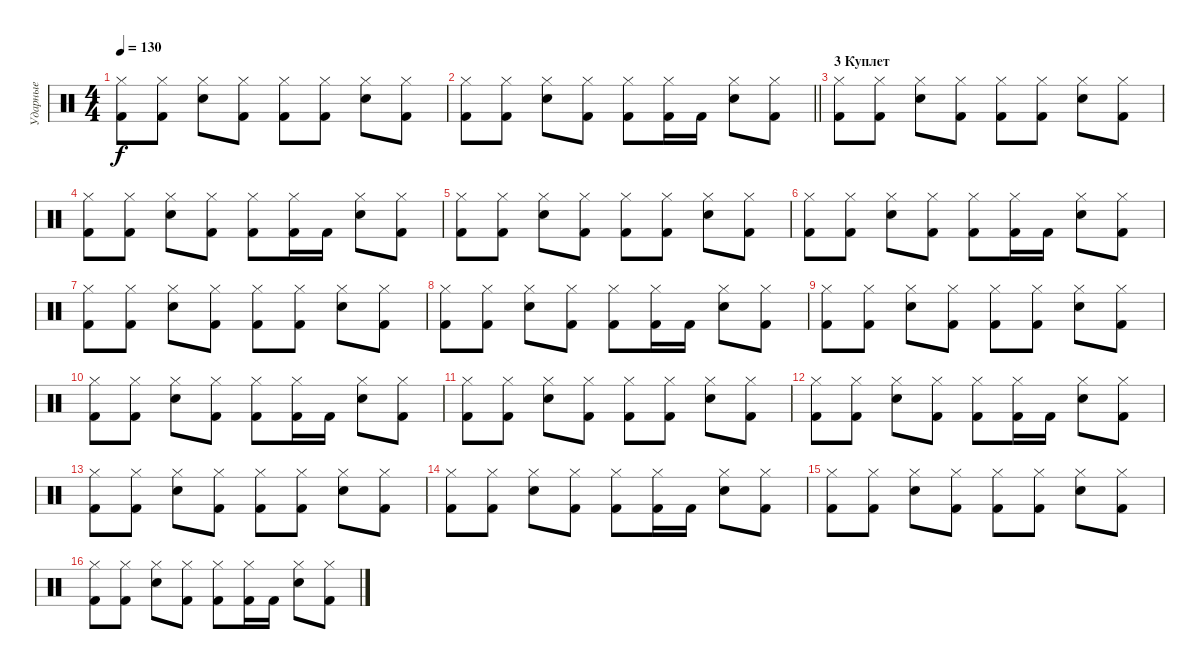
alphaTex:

\track ("Ударные" "Ударные") {instrument percussion}
\staff {score}
\articulation defaults
\ts (4 4)
\tempo 130
\clef neutral
\ks c
("Hi-Hat (closed)" "Kick (hit) 2").8{dy f} ("Hi-Hat (closed)" "Kick (hit) 2").8 ("Hi-Hat (closed)" "Snare (hit) 2").8 ("Hi-Hat (closed)" "Kick (hit) 2").8 ("Hi-Hat (closed)" "Kick (hit) 2").8 ("Hi-Hat (closed)" "Kick (hit) 2").8 ("Hi-Hat (closed)" "Snare (hit) 2").8 ("Hi-Hat (closed)" "Kick (hit) 2").8 |
\barLineRight lightlight
("Hi-Hat (closed)" "Kick (hit) 2").8 ("Hi-Hat (closed)" "Kick (hit) 2").8 ("Hi-Hat (closed)" "Snare (hit) 2").8 ("Hi-Hat (closed)" "Kick (hit) 2").8 ("Hi-Hat (closed)" "Kick (hit) 2").8 ("Hi-Hat (closed)" "Kick (hit) 2").16 "Kick (hit) 2".16 ("Hi-Hat (closed)" "Snare (hit) 2").8 ("Hi-Hat (closed)" "Kick (hit) 2").8 |
\section ("" "3 Куплет")
("Hi-Hat (closed)" "Kick (hit) 2").8 ("Hi-Hat (closed)" "Kick (hit) 2").8 ("Hi-Hat (closed)" "Snare (hit) 2").8 ("Hi-Hat (closed)" "Kick (hit) 2").8 ("Hi-Hat (closed)" "Kick (hit) 2").8 ("Hi-Hat (closed)" "Kick (hit) 2").8 ("Hi-Hat (closed)" "Snare (hit) 2").8 ("Hi-Hat (closed)" "Kick (hit) 2").8 |
("Hi-Hat (closed)" "Kick (hit) 2").8 ("Hi-Hat (closed)" "Kick (hit) 2").8 ("Hi-Hat (closed)" "Snare (hit) 2").8 ("Hi-Hat (closed)" "Kick (hit) 2").8 ("Hi-Hat (closed)" "Kick (hit) 2").8 ("Hi-Hat (closed)" "Kick (hit) 2").16 "Kick (hit) 2".16 ("Hi-Hat (closed)" "Snare (hit) 2").8 ("Hi-Hat (closed)" "Kick (hit) 2").8 |
("Hi-Hat (closed)" "Kick (hit) 2").8 ("Hi-Hat (closed)" "Kick (hit) 2").8 ("Hi-Hat (closed)" "Snare (hit) 2").8 ("Hi-Hat (closed)" "Kick (hit) 2").8 ("Hi-Hat (closed)" "Kick (hit) 2").8 ("Hi-Hat (closed)" "Kick (hit) 2").8 ("Hi-Hat (closed)" "Snare (hit) 2").8 ("Hi-Hat (closed)" "Kick (hit) 2").8 |
("Hi-Hat (closed)" "Kick (hit) 2").8 ("Hi-Hat (closed)" "Kick (hit) 2").8 ("Hi-Hat (closed)" "Snare (hit) 2").8 ("Hi-Hat (closed)" "Kick (hit) 2").8 ("Hi-Hat (closed)" "Kick (hit) 2").8 ("Hi-Hat (closed)" "Kick (hit) 2").16 "Kick (hit) 2".16 ("Hi-Hat (closed)" "Snare (hit) 2").8 ("Hi-Hat (closed)" "Kick (hit) 2").8 |
("Hi-Hat (closed)" "Kick (hit) 2").8 ("Hi-Hat (closed)" "Kick (hit) 2").8 ("Hi-Hat (closed)" "Snare (hit) 2").8 ("Hi-Hat (closed)" "Kick (hit) 2").8 ("Hi-Hat (closed)" "Kick (hit) 2").8 ("Hi-Hat (closed)" "Kick (hit) 2").8 ("Hi-Hat (closed)" "Snare (hit) 2").8 ("Hi-Hat (closed)" "Kick (hit) 2").8 |
("Hi-Hat (closed)" "Kick (hit) 2").8 ("Hi-Hat (closed)" "Kick (hit) 2").8 ("Hi-Hat (closed)" "Snare (hit) 2").8 ("Hi-Hat (closed)" "Kick (hit) 2").8 ("Hi-Hat (closed)" "Kick (hit) 2").8 ("Hi-Hat (closed)" "Kick (hit) 2").16 "Kick (hit) 2".16 ("Hi-Hat (closed)" "Snare (hit) 2").8 ("Hi-Hat (closed)" "Kick (hit) 2").8 |
("Hi-Hat (closed)" "Kick (hit) 2").8 ("Hi-Hat (closed)" "Kick (hit) 2").8 ("Hi-Hat (closed)" "Snare (hit) 2").8 ("Hi-Hat (closed)" "Kick (hit) 2").8 ("Hi-Hat (closed)" "Kick (hit) 2").8 ("Hi-Hat (closed)" "Kick (hit) 2").8 ("Hi-Hat (closed)" "Snare (hit) 2").8 ("Hi-Hat (closed)" "Kick (hit) 2").8 |
("Hi-Hat (closed)" "Kick (hit) 2").8 ("Hi-Hat (closed)" "Kick (hit) 2").8 ("Hi-Hat (closed)" "Snare (hit) 2").8 ("Hi-Hat (closed)" "Kick (hit) 2").8 ("Hi-Hat (closed)" "Kick (hit) 2").8 ("Hi-Hat (closed)" "Kick (hit) 2").16 "Kick (hit) 2".16 ("Hi-Hat (closed)" "Snare (hit) 2").8 ("Hi-Hat (closed)" "Kick (hit) 2").8 |
("Hi-Hat (closed)" "Kick (hit) 2").8 ("Hi-Hat (closed)" "Kick (hit) 2").8 ("Hi-Hat (closed)" "Snare (hit) 2").8 ("Hi-Hat (closed)" "Kick (hit) 2").8 ("Hi-Hat (closed)" "Kick (hit) 2").8 ("Hi-Hat (closed)" "Kick (hit) 2").8 ("Hi-Hat (closed)" "Snare (hit) 2").8 ("Hi-Hat (closed)" "Kick (hit) 2").8 |
("Hi-Hat (closed)" "Kick (hit) 2").8 ("Hi-Hat (closed)" "Kick (hit) 2").8 ("Hi-Hat (closed)" "Snare (hit) 2").8 ("Hi-Hat (closed)" "Kick (hit) 2").8 ("Hi-Hat (closed)" "Kick (hit) 2").8 ("Hi-Hat (closed)" "Kick (hit) 2").16 "Kick (hit) 2".16 ("Hi-Hat (closed)" "Snare (hit) 2").8 ("Hi-Hat (closed)" "Kick (hit) 2").8 |
("Hi-Hat (closed)" "Kick (hit) 2").8 ("Hi-Hat (closed)" "Kick (hit) 2").8 ("Hi-Hat (closed)" "Snare (hit) 2").8 ("Hi-Hat (closed)" "Kick (hit) 2").8 ("Hi-Hat (closed)" "Kick (hit) 2").8 ("Hi-Hat (closed)" "Kick (hit) 2").8 ("Hi-Hat (closed)" "Snare (hit) 2").8 ("Hi-Hat (closed)" "Kick (hit) 2").8 |
("Hi-Hat (closed)" "Kick (hit) 2").8 ("Hi-Hat (closed)" "Kick (hit) 2").8 ("Hi-Hat (closed)" "Snare (hit) 2").8 ("Hi-Hat (closed)" "Kick (hit) 2").8 ("Hi-Hat (closed)" "Kick (hit) 2").8 ("Hi-Hat (closed)" "Kick (hit) 2").16 "Kick (hit) 2".16 ("Hi-Hat (closed)" "Snare (hit) 2").8 ("Hi-Hat (closed)" "Kick (hit) 2").8 |
("Hi-Hat (closed)" "Kick (hit) 2").8 ("Hi-Hat (closed)" "Kick (hit) 2").8 ("Hi-Hat (closed)" "Snare (hit) 2").8 ("Hi-Hat (closed)" "Kick (hit) 2").8 ("Hi-Hat (closed)" "Kick (hit) 2").8 ("Hi-Hat (closed)" "Kick (hit) 2").8 ("Hi-Hat (closed)" "Snare (hit) 2").8 ("Hi-Hat (closed)" "Kick (hit) 2").8 |
("Hi-Hat (closed)" "Kick (hit) 2").8 ("Hi-Hat (closed)" "Kick (hit) 2").8 ("Hi-Hat (closed)" "Snare (hit) 2").8 ("Hi-Hat (closed)" "Kick (hit) 2").8 ("Hi-Hat (closed)" "Kick (hit) 2").8 ("Hi-Hat (closed)" "Kick (hit) 2").16 "Kick (hit) 2".16 ("Hi-Hat (closed)" "Snare (hit) 2").8 ("Hi-Hat (closed)" "Kick (hit) 2").8
